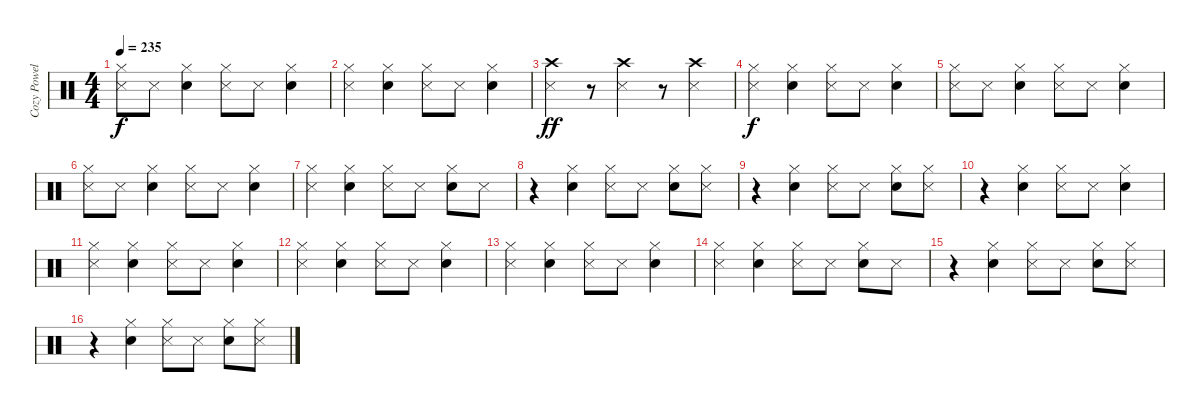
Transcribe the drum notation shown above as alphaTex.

\track ("Cozy Powell" "Cozy Powel") {instrument percussion}
\staff {score}
\articulation defaults
\ts (4 4)
\tempo 235
\clef neutral
\ks c
("Hi-Hat (closed)" "Metronome (hit)").8{dy f} "Metronome (hit)".8 ("Hi-Hat (closed)" "Electric Snare (hit)").4 ("Metronome (hit)" "Hi-Hat (closed)").8 "Metronome (hit)".8 ("Hi-Hat (closed)" "Electric Snare (hit)").4 |
("Metronome (hit)" "Hi-Hat (closed)").4 ("Electric Snare (hit)" "Hi-Hat (closed)").4 ("Metronome (hit)" "Hi-Hat (closed)").8 "Metronome (hit)".8 ("Hi-Hat (closed)" "Electric Snare (hit)").4 |
("Metronome (hit)" "Crash high (hit)").4{dy ff} r.8 ("Crash high (hit)" "Metronome (hit)").4 r.8 ("Metronome (hit)" "Crash high (hit)").4 |
("Metronome (hit)" "Hi-Hat (closed)").4{dy f} ("Hi-Hat (closed)" "Electric Snare (hit)").4 ("Hi-Hat (closed)" "Metronome (hit)").8 "Metronome (hit)".8 ("Electric Snare (hit)" "Hi-Hat (closed)").4 |
("Hi-Hat (closed)" "Metronome (hit)").8 "Metronome (hit)".8 ("Hi-Hat (closed)" "Electric Snare (hit)").4 ("Hi-Hat (closed)" "Metronome (hit)").8 "Metronome (hit)".8 ("Electric Snare (hit)" "Hi-Hat (closed)").4 |
("Metronome (hit)" "Hi-Hat (closed)").8 "Metronome (hit)".8 ("Hi-Hat (closed)" "Electric Snare (hit)").4 ("Metronome (hit)" "Hi-Hat (closed)").8 "Metronome (hit)".8 ("Hi-Hat (closed)" "Electric Snare (hit)").4 |
("Hi-Hat (closed)" "Metronome (hit)").4 ("Electric Snare (hit)" "Hi-Hat (closed)").4 ("Metronome (hit)" "Hi-Hat (closed)").8 "Metronome (hit)".8 ("Hi-Hat (closed)" "Electric Snare (hit)").8 "Metronome (hit)".8 |
r.4 ("Hi-Hat (closed)" "Electric Snare (hit)").4 ("Metronome (hit)" "Hi-Hat (closed)").8 "Metronome (hit)".8 ("Hi-Hat (closed)" "Electric Snare (hit)").8 ("Metronome (hit)" "Hi-Hat (closed)").8 |
r.4 ("Electric Snare (hit)" "Hi-Hat (closed)").4 ("Metronome (hit)" "Hi-Hat (closed)").8 "Metronome (hit)".8 ("Electric Snare (hit)" "Hi-Hat (closed)").8 ("Metronome (hit)" "Hi-Hat (closed)").8 |
r.4 ("Electric Snare (hit)" "Hi-Hat (closed)").4 ("Hi-Hat (closed)" "Metronome (hit)").8 "Metronome (hit)".8 ("Electric Snare (hit)" "Hi-Hat (closed)").4 |
("Hi-Hat (closed)" "Metronome (hit)").4 ("Hi-Hat (closed)" "Electric Snare (hit)").4 ("Metronome (hit)" "Hi-Hat (closed)").8 "Metronome (hit)".8 ("Electric Snare (hit)" "Hi-Hat (closed)").4 |
("Hi-Hat (closed)" "Metronome (hit)").4 ("Hi-Hat (closed)" "Electric Snare (hit)").4 ("Metronome (hit)" "Hi-Hat (closed)").8 "Metronome (hit)".8 ("Electric Snare (hit)" "Hi-Hat (closed)").4 |
("Metronome (hit)" "Hi-Hat (closed)").4 ("Electric Snare (hit)" "Hi-Hat (closed)").4 ("Metronome (hit)" "Hi-Hat (closed)").8 "Metronome (hit)".8 ("Electric Snare (hit)" "Hi-Hat (closed)").4 |
("Metronome (hit)" "Hi-Hat (closed)").4 ("Hi-Hat (closed)" "Electric Snare (hit)").4 ("Hi-Hat (closed)" "Metronome (hit)").8 "Metronome (hit)".8 ("Electric Snare (hit)" "Hi-Hat (closed)").8 "Metronome (hit)".8 |
r.4 ("Electric Snare (hit)" "Hi-Hat (closed)").4 ("Metronome (hit)" "Hi-Hat (closed)").8 "Metronome (hit)".8 ("Electric Snare (hit)" "Hi-Hat (closed)").8 ("Metronome (hit)" "Hi-Hat (closed)").8 |
r.4 ("Hi-Hat (closed)" "Electric Snare (hit)").4 ("Metronome (hit)" "Hi-Hat (closed)").8 "Metronome (hit)".8 ("Electric Snare (hit)" "Hi-Hat (closed)").8 ("Hi-Hat (closed)" "Metronome (hit)").8
